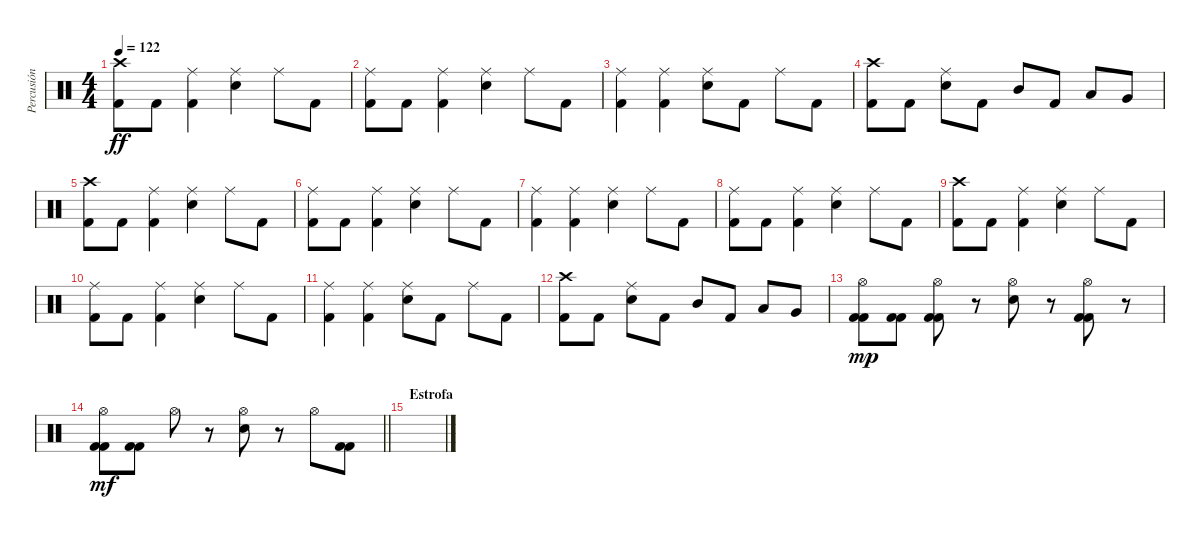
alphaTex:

\track ("Percusión" "Percusión") {instrument percussion}
\staff {score}
\articulation defaults
\ts (4 4)
\tempo 122
\clef neutral
\ks c
("Crash high (hit)" "Kick (hit) 2").8{dy ff} "Kick (hit) 2".8 ("Ride (middle)" "Kick (hit) 2").4 ("Ride (middle)" "Snare (hit) 2").4 "Ride (middle)".8 "Kick (hit) 2".8 |
("Ride (middle)" "Kick (hit) 2").8 "Kick (hit) 2".8 ("Ride (middle)" "Kick (hit) 2").4 ("Ride (middle)" "Snare (hit) 2").4 "Ride (middle)".8 "Kick (hit) 2".8 |
("Ride (middle)" "Kick (hit) 2").4 ("Ride (middle)" "Kick (hit) 2").4 ("Ride (middle)" "Snare (hit) 2").8 "Kick (hit) 2".8 "Ride (middle)".8 "Kick (hit) 2".8 |
("Crash high (hit)" "Kick (hit) 2").8 "Kick (hit) 2".8 ("Ride (middle)" "Snare (hit) 2").8 "Kick (hit) 2".8 "Mid Tom (hit)".8 "Kick (hit) 2".8 "Low Tom (hit)".8 "Very Low Tom (hit)".8 |
("Crash high (hit)" "Kick (hit) 2").8 "Kick (hit) 2".8 ("Ride (middle)" "Kick (hit) 2").4 ("Ride (middle)" "Snare (hit) 2").4 "Ride (middle)".8 "Kick (hit) 2".8 |
("Ride (middle)" "Kick (hit) 2").8 "Kick (hit) 2".8 ("Ride (middle)" "Kick (hit) 2").4 ("Ride (middle)" "Snare (hit) 2").4 "Ride (middle)".8 "Kick (hit) 2".8 |
("Ride (middle)" "Kick (hit) 2").4 ("Ride (middle)" "Kick (hit) 2").4 ("Ride (middle)" "Snare (hit) 2").4 "Ride (middle)".8 "Kick (hit) 2".8 |
("Ride (middle)" "Kick (hit) 2").8 "Kick (hit) 2".8 ("Ride (middle)" "Kick (hit) 2").4 ("Ride (middle)" "Snare (hit) 2").4 "Ride (middle)".8 "Kick (hit) 2".8 |
("Crash high (hit)" "Kick (hit) 2").8 "Kick (hit) 2".8 ("Ride (middle)" "Kick (hit) 2").4 ("Ride (middle)" "Snare (hit) 2").4 "Ride (middle)".8 "Kick (hit) 2".8 |
("Ride (middle)" "Kick (hit) 2").8 "Kick (hit) 2".8 ("Ride (middle)" "Kick (hit) 2").4 ("Ride (middle)" "Snare (hit) 2").4 "Ride (middle)".8 "Kick (hit) 2".8 |
("Ride (middle)" "Kick (hit) 2").4 ("Ride (middle)" "Kick (hit) 2").4 ("Ride (middle)" "Snare (hit) 2").8 "Kick (hit) 2".8 "Ride (middle)".8 "Kick (hit) 2".8 |
("Crash high (hit)" "Kick (hit) 2").8 "Kick (hit) 2".8 ("Ride (middle)" "Snare (hit) 2").8 "Kick (hit) 2".8 "Mid Tom (hit)".8 "Kick (hit) 2".8 "Low Tom (hit)".8 "Very Low Tom (hit)".8 |
("Hi-Hat (open)" "Kick (hit) 2" "Kick (hit) 2").8{dy mp} ("Kick (hit) 2" "Kick (hit) 2").8 ("Hi-Hat (open)" "Kick (hit) 2" "Kick (hit) 2").8 r.8 ("Hi-Hat (open)" "Snare (hit) 2").8 r.8 ("Hi-Hat (open)" "Kick (hit) 2" "Kick (hit) 2").8 r.8 |
\barLineRight lightlight
("Hi-Hat (open)" "Kick (hit) 2" "Kick (hit) 2").8{dy mf} ("Kick (hit) 2" "Kick (hit) 2").8 "Hi-Hat (open)".8 r.8 ("Hi-Hat (open)" "Snare (hit) 2").8 r.8 "Hi-Hat (open)".8 ("Kick (hit) 2" "Kick (hit) 2").8 |
\section ("" "Estrofa")
